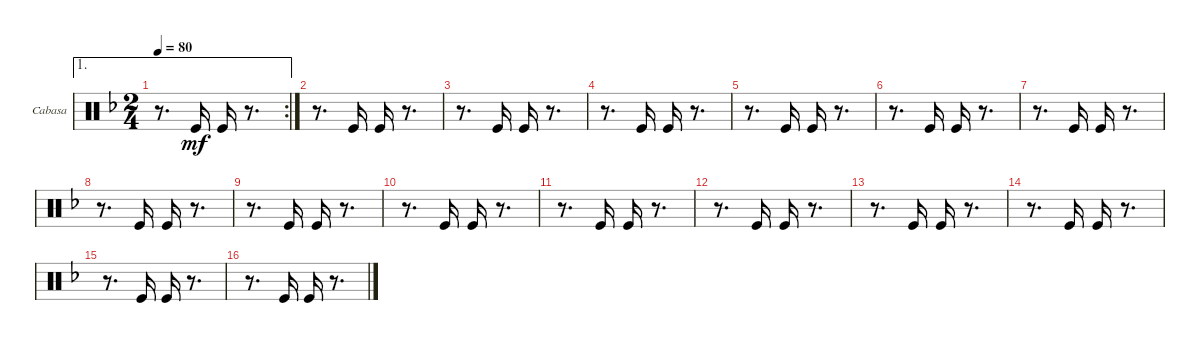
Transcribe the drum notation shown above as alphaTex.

\defaultSystemsLayout 4
\bracketExtendMode groupsimilarinstruments
\firstSystemTrackNameOrientation horizontal
\otherSystemsTrackNameOrientation horizontal
\track ("Cabasa" "Cabasa") {instrument percussion}
\staff {score}
\articulation defaults
\ae 1
\rc 2
\ts (2 4)
\tempo 80
\clef neutral
\ks f
r.8{d dy mf} "Kick (hit)".16 "Kick (hit)".16 r.8{d} |
r.8{d} "Kick (hit)".16 "Kick (hit)".16 r.8{d} |
r.8{d} "Kick (hit)".16 "Kick (hit)".16 r.8{d} |
r.8{d} "Kick (hit)".16 "Kick (hit)".16 r.8{d} |
r.8{d} "Kick (hit)".16 "Kick (hit)".16 r.8{d} |
r.8{d} "Kick (hit)".16 "Kick (hit)".16 r.8{d} |
r.8{d} "Kick (hit)".16 "Kick (hit)".16 r.8{d} |
r.8{d} "Kick (hit)".16 "Kick (hit)".16 r.8{d} |
r.8{d} "Kick (hit)".16 "Kick (hit)".16 r.8{d} |
r.8{d} "Kick (hit)".16 "Kick (hit)".16 r.8{d} |
r.8{d} "Kick (hit)".16 "Kick (hit)".16 r.8{d} |
r.8{d} "Kick (hit)".16 "Kick (hit)".16 r.8{d} |
r.8{d} "Kick (hit)".16 "Kick (hit)".16 r.8{d} |
r.8{d} "Kick (hit)".16 "Kick (hit)".16 r.8{d} |
r.8{d} "Kick (hit)".16 "Kick (hit)".16 r.8{d} |
r.8{d} "Kick (hit)".16 "Kick (hit)".16 r.8{d}
